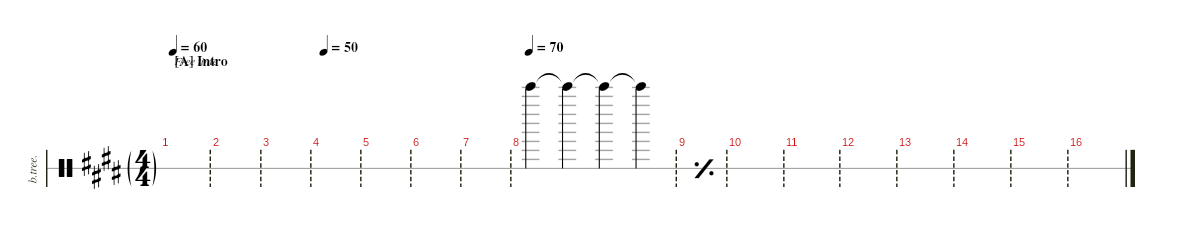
\defaultSystemsLayout 4
\hideDynamics
\bracketExtendMode nobrackets
\track ("Bell Tree" "b.tree.") {instrument percussion}
\staff {score 1}
\articulation defaults
\ts (4 4)
\ft
\section ("A" "Intro")
\tempo 60
\clef neutral
\ks e
|
\ft
|
\ft
|
\ft
\tempo 50
|
\ft
|
\ft
|
\ft
|
\ft
\tempo (70)
"Bell Tree (hit)"{acc forcenatural}.4 "Bell Tree (hit)"{t acc forcenatural}.4 "Bell Tree (hit)"{t acc forcenatural}.4 "Bell Tree (hit)"{t acc forcenatural}.4 |
\ft
\simile simple
|
\ft
|
\ft
|
\ft
|
\ft
|
\ft
|
\ft
|
\ft
